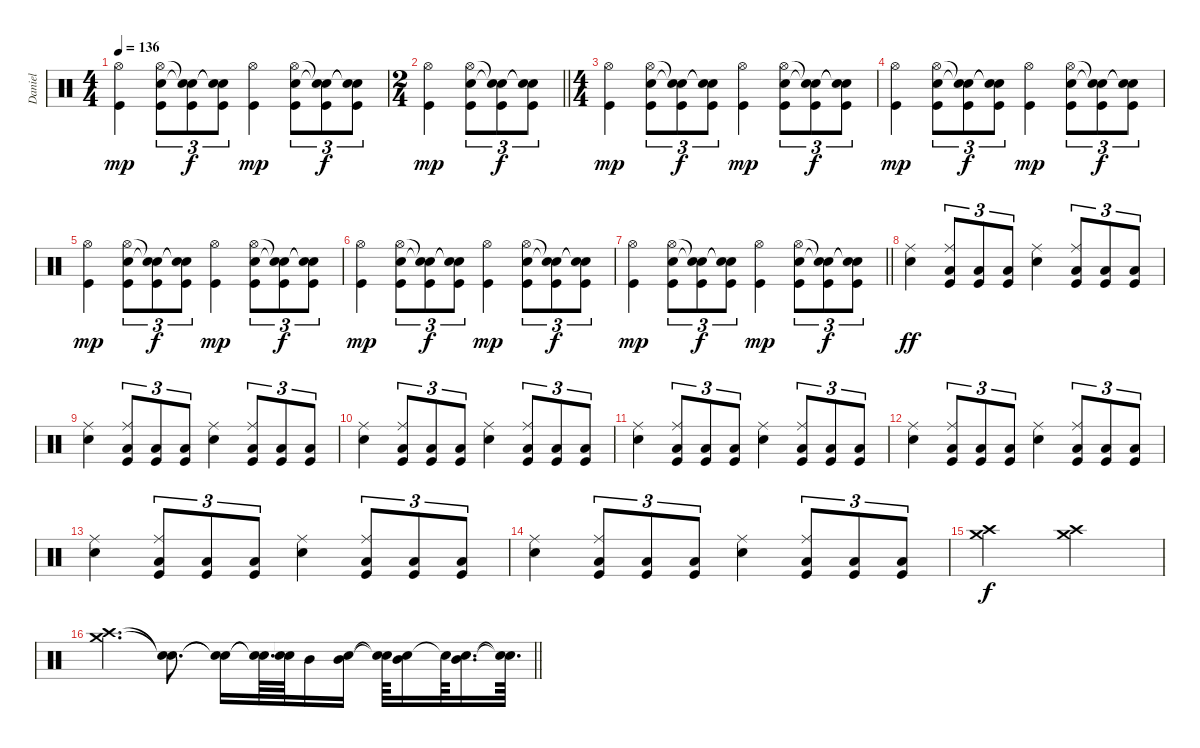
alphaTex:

\track ("Daniel" "Daniel") {instrument percussion}
\staff {score}
\articulation defaults
\ts (4 4)
\tempo 136
\clef neutral
\ks c
("Hi-Hat (open)" "Kick (hit)").4{dy mp} ("Hi-Hat (open)" "Snare (hit) 2" "Kick (hit)").8{tu (3 2)} ("Snare (hit)"{t} "Snare (hit)"{t} "Kick (hit)").8{tu (3 2) dy f} ("Snare (hit)"{t} "Snare (hit)"{t} "Kick (hit)").8{tu (3 2)} ("Hi-Hat (open)" "Kick (hit)").4{dy mp} ("Hi-Hat (open)" "Snare (hit) 2" "Kick (hit)").8{tu (3 2)} ("Snare (hit)"{t} "Snare (hit)"{t} "Kick (hit)").8{tu (3 2) dy f} ("Snare (hit)"{t} "Snare (hit)"{t} "Kick (hit)").8{tu (3 2)} |
\ts (2 4)
\barLineRight lightlight
("Hi-Hat (open)" "Kick (hit)").4{dy mp} ("Hi-Hat (open)" "Snare (hit) 2" "Kick (hit)").8{tu (3 2)} ("Snare (hit)"{t} "Snare (hit)"{t} "Kick (hit)").8{tu (3 2) dy f} ("Snare (hit)"{t} "Snare (hit)"{t} "Kick (hit)").8{tu (3 2)} |
\ts (4 4)
("Hi-Hat (open)" "Kick (hit)").4{dy mp} ("Hi-Hat (open)" "Snare (hit) 2" "Kick (hit)").8{tu (3 2)} ("Snare (hit)"{t} "Snare (hit)"{t} "Kick (hit)").8{tu (3 2) dy f} ("Snare (hit)"{t} "Snare (hit)"{t} "Kick (hit)").8{tu (3 2)} ("Hi-Hat (open)" "Kick (hit)").4{dy mp} ("Hi-Hat (open)" "Snare (hit) 2" "Kick (hit)").8{tu (3 2)} ("Snare (hit)"{t} "Snare (hit)"{t} "Kick (hit)").8{tu (3 2) dy f} ("Snare (hit)"{t} "Snare (hit)"{t} "Kick (hit)").8{tu (3 2)} |
("Hi-Hat (open)" "Kick (hit)").4{dy mp} ("Hi-Hat (open)" "Snare (hit) 2" "Kick (hit)").8{tu (3 2)} ("Snare (hit)"{t} "Snare (hit)"{t} "Kick (hit)").8{tu (3 2) dy f} ("Snare (hit)"{t} "Snare (hit)"{t} "Kick (hit)").8{tu (3 2)} ("Hi-Hat (open)" "Kick (hit)").4{dy mp} ("Hi-Hat (open)" "Snare (hit) 2" "Kick (hit)").8{tu (3 2)} ("Snare (hit)"{t} "Snare (hit)"{t} "Kick (hit)").8{tu (3 2) dy f} ("Snare (hit)"{t} "Snare (hit)"{t} "Kick (hit)").8{tu (3 2)} |
("Hi-Hat (open)" "Kick (hit)").4{dy mp} ("Hi-Hat (open)" "Snare (hit) 2" "Kick (hit)").8{tu (3 2)} ("Snare (hit)"{t} "Snare (hit)"{t} "Kick (hit)").8{tu (3 2) dy f} ("Snare (hit)"{t} "Snare (hit)"{t} "Kick (hit)").8{tu (3 2)} ("Hi-Hat (open)" "Kick (hit)").4{dy mp} ("Hi-Hat (open)" "Snare (hit) 2" "Kick (hit)").8{tu (3 2)} ("Snare (hit)"{t} "Snare (hit)"{t} "Kick (hit)").8{tu (3 2) dy f} ("Snare (hit)"{t} "Snare (hit)"{t} "Kick (hit)").8{tu (3 2)} |
("Hi-Hat (open)" "Kick (hit)").4{dy mp} ("Hi-Hat (open)" "Snare (hit) 2" "Kick (hit)").8{tu (3 2)} ("Snare (hit)"{t} "Snare (hit)"{t} "Kick (hit)").8{tu (3 2) dy f} ("Snare (hit)"{t} "Snare (hit)"{t} "Kick (hit)").8{tu (3 2)} ("Hi-Hat (open)" "Kick (hit)").4{dy mp} ("Hi-Hat (open)" "Snare (hit) 2" "Kick (hit)").8{tu (3 2)} ("Snare (hit)"{t} "Snare (hit)"{t} "Kick (hit)").8{tu (3 2) dy f} ("Snare (hit)"{t} "Snare (hit)"{t} "Kick (hit)").8{tu (3 2)} |
\barLineRight lightlight
("Hi-Hat (open)" "Kick (hit)").4{dy mp} ("Hi-Hat (open)" "Snare (hit) 2" "Kick (hit)").8{tu (3 2)} ("Snare (hit)"{t} "Snare (hit)"{t} "Kick (hit)").8{tu (3 2) dy f} ("Snare (hit)"{t} "Snare (hit)"{t} "Kick (hit)").8{tu (3 2)} ("Hi-Hat (open)" "Kick (hit)").4{dy mp} ("Hi-Hat (open)" "Snare (hit) 2" "Kick (hit)").8{tu (3 2)} ("Snare (hit)"{t} "Snare (hit)"{t} "Kick (hit)").8{tu (3 2) dy f} ("Snare (hit)"{t} "Snare (hit)"{t} "Kick (hit)").8{tu (3 2)} |
("Ride (middle)" "Snare (hit) 2").4{dy ff} ("Ride (middle)" "Low Tom (hit)" "Kick (hit)").8{tu (3 2)} ("Low Tom (hit)" "Kick (hit)").8{tu (3 2)} ("Low Tom (hit)" "Kick (hit)").8{tu (3 2)} ("Ride (middle)" "Snare (hit) 2").4 ("Ride (middle)" "Low Tom (hit)" "Kick (hit)").8{tu (3 2)} ("Low Tom (hit)" "Kick (hit)").8{tu (3 2)} ("Low Tom (hit)" "Kick (hit)").8{tu (3 2)} |
("Ride (middle)" "Snare (hit) 2").4 ("Ride (middle)" "Low Tom (hit)" "Kick (hit)").8{tu (3 2)} ("Low Tom (hit)" "Kick (hit)").8{tu (3 2)} ("Low Tom (hit)" "Kick (hit)").8{tu (3 2)} ("Ride (middle)" "Snare (hit) 2").4 ("Ride (middle)" "Low Tom (hit)" "Kick (hit)").8{tu (3 2)} ("Low Tom (hit)" "Kick (hit)").8{tu (3 2)} ("Low Tom (hit)" "Kick (hit)").8{tu (3 2)} |
("Ride (middle)" "Snare (hit) 2").4 ("Ride (middle)" "Low Tom (hit)" "Kick (hit)").8{tu (3 2)} ("Low Tom (hit)" "Kick (hit)").8{tu (3 2)} ("Low Tom (hit)" "Kick (hit)").8{tu (3 2)} ("Ride (middle)" "Snare (hit) 2").4 ("Ride (middle)" "Low Tom (hit)" "Kick (hit)").8{tu (3 2)} ("Low Tom (hit)" "Kick (hit)").8{tu (3 2)} ("Low Tom (hit)" "Kick (hit)").8{tu (3 2)} |
("Ride (middle)" "Snare (hit) 2").4 ("Ride (middle)" "Low Tom (hit)" "Kick (hit)").8{tu (3 2)} ("Low Tom (hit)" "Kick (hit)").8{tu (3 2)} ("Low Tom (hit)" "Kick (hit)").8{tu (3 2)} ("Ride (middle)" "Snare (hit) 2").4 ("Ride (middle)" "Low Tom (hit)" "Kick (hit)").8{tu (3 2)} ("Low Tom (hit)" "Kick (hit)").8{tu (3 2)} ("Low Tom (hit)" "Kick (hit)").8{tu (3 2)} |
("Ride (middle)" "Snare (hit) 2").4 ("Ride (middle)" "Low Tom (hit)" "Kick (hit)").8{tu (3 2)} ("Low Tom (hit)" "Kick (hit)").8{tu (3 2)} ("Low Tom (hit)" "Kick (hit)").8{tu (3 2)} ("Ride (middle)" "Snare (hit) 2").4 ("Ride (middle)" "Low Tom (hit)" "Kick (hit)").8{tu (3 2)} ("Low Tom (hit)" "Kick (hit)").8{tu (3 2)} ("Low Tom (hit)" "Kick (hit)").8{tu (3 2)} |
("Ride (middle)" "Snare (hit) 2").4 ("Ride (middle)" "Low Tom (hit)" "Kick (hit)").8{tu (3 2)} ("Low Tom (hit)" "Kick (hit)").8{tu (3 2)} ("Low Tom (hit)" "Kick (hit)").8{tu (3 2)} ("Ride (middle)" "Snare (hit) 2").4 ("Ride (middle)" "Low Tom (hit)" "Kick (hit)").8{tu (3 2)} ("Low Tom (hit)" "Kick (hit)").8{tu (3 2)} ("Low Tom (hit)" "Kick (hit)").8{tu (3 2)} |
("Ride (middle)" "Snare (hit) 2").4 ("Ride (middle)" "Low Tom (hit)" "Kick (hit)").8{tu (3 2)} ("Low Tom (hit)" "Kick (hit)").8{tu (3 2)} ("Low Tom (hit)" "Kick (hit)").8{tu (3 2)} ("Ride (middle)" "Snare (hit) 2").4 ("Ride (middle)" "Low Tom (hit)" "Kick (hit)").8{tu (3 2)} ("Low Tom (hit)" "Kick (hit)").8{tu (3 2)} ("Low Tom (hit)" "Kick (hit)").8{tu (3 2)} |
("Crash medium (hit)" "Crash high (hit)").2{dy f} ("Crash medium (hit)" "Crash high (hit)").2 |
\barLineRight lightlight
("Crash medium (hit)" "Crash high (hit)").4{d} ("Snare (hit)"{t} "Snare (hit)"{t}).8{d} ("Snare (hit)"{t} "Snare (hit)"{t}).16 ("Snare (hit)"{t} "Snare (hit)"{t}).64{d} ("Snare (hit)"{t} "Snare (hit)"{t}).64 "Mid Tom (hit)".16 ("Snare (hit) 2" "Mid Tom (hit)").16 ("Snare (hit)"{t} "Snare (hit)"{t}).64 ("Snare (hit) 2" "Mid Tom (hit)").16 "Snare (hit)"{t}.64 ("Snare (hit) 2" "Mid Tom (hit)").16{d} ("Snare (hit)"{t} "Snare (hit)"{t}).64{d}
